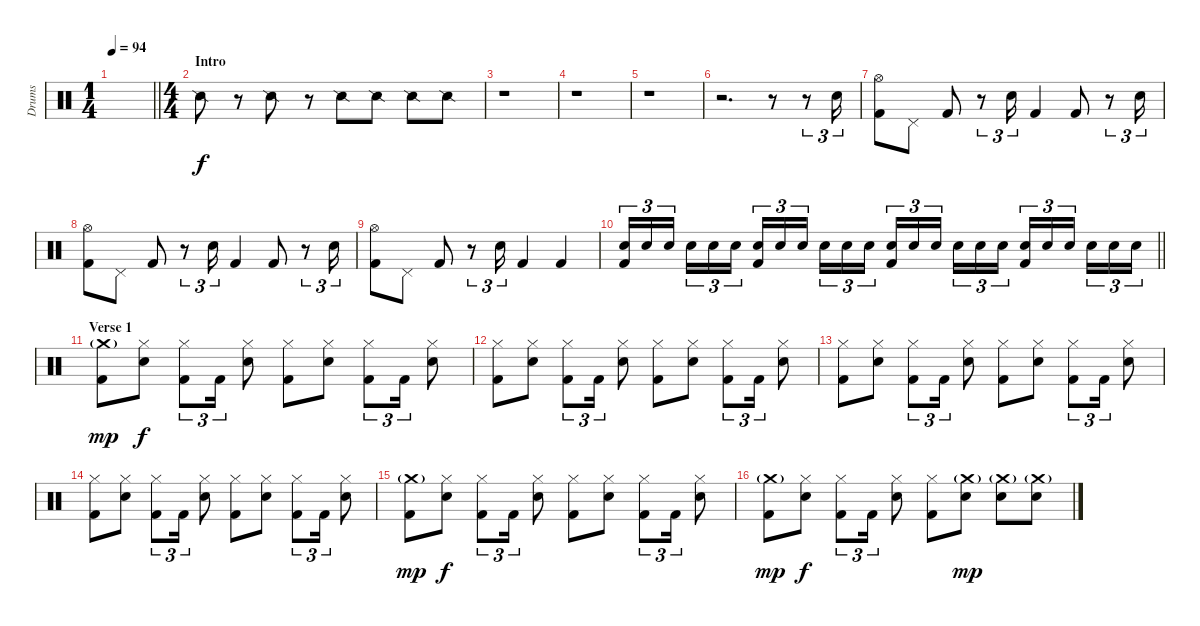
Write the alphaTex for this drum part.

\track ("Drums" "Drums") {instrument percussion}
\staff {score}
\articulation defaults
\ts (1 4)
\tempo 94
\clef neutral
\barLineRight lightlight
\ks c
|
\ts (4 4)
\section ("" "Intro")
"Snare (side stick) 2".8 r.8 "Snare (side stick) 2".8 r.8 "Snare (side stick) 2".8 "Snare (side stick) 2".8 "Snare (side stick) 2".8 "Snare (side stick) 2".8 |
r.1 |
r.1 |
r.1 |
r.2{d} r.8 r.8{tu (3 2)} "Electric Snare (hit)".16{tu (3 2)} |
("Hi-Hat (open)" "Kick (hit) 2").8 "Pedal Hi-Hat (hit)".8 "Kick (hit) 2".8 r.8{tu (3 2)} "Electric Snare (hit)".16{tu (3 2)} "Kick (hit) 2".4 "Kick (hit) 2".8 r.8{tu (3 2)} "Electric Snare (hit)".16{tu (3 2)} |
("Hi-Hat (open)" "Kick (hit) 2").8 "Pedal Hi-Hat (hit)".8 "Kick (hit) 2".8 r.8{tu (3 2)} "Electric Snare (hit)".16{tu (3 2)} "Kick (hit) 2".4 "Kick (hit) 2".8 r.8{tu (3 2)} "Electric Snare (hit)".16{tu (3 2)} |
("Hi-Hat (open)" "Kick (hit) 2").8 "Pedal Hi-Hat (hit)".8 "Kick (hit) 2".8 r.8{tu (3 2)} "Electric Snare (hit)".16{tu (3 2)} "Kick (hit) 2".4 "Kick (hit) 2".4 |
\barLineRight lightlight
("Electric Snare (hit)" "Kick (hit) 2").16{tu (3 2)} "Electric Snare (hit)".16{tu (3 2)} "Electric Snare (hit)".16{tu (3 2) beam splitsecondary} "Electric Snare (hit)".16{tu (3 2)} "Electric Snare (hit)".16{tu (3 2)} "Electric Snare (hit)".16{tu (3 2)} ("Electric Snare (hit)" "Kick (hit) 2").16{tu (3 2)} "Electric Snare (hit)".16{tu (3 2)} "Electric Snare (hit)".16{tu (3 2) beam splitsecondary} "Electric Snare (hit)".16{tu (3 2)} "Electric Snare (hit)".16{tu (3 2)} "Electric Snare (hit)".16{tu (3 2)} ("Electric Snare (hit)" "Kick (hit) 2").16{tu (3 2)} "Electric Snare (hit)".16{tu (3 2)} "Electric Snare (hit)".16{tu (3 2) beam splitsecondary} "Electric Snare (hit)".16{tu (3 2)} "Electric Snare (hit)".16{tu (3 2)} "Electric Snare (hit)".16{tu (3 2)} ("Electric Snare (hit)" "Kick (hit) 2").16{tu (3 2)} "Electric Snare (hit)".16{tu (3 2)} "Electric Snare (hit)".16{tu (3 2) beam splitsecondary} "Electric Snare (hit)".16{tu (3 2)} "Electric Snare (hit)".16{tu (3 2)} "Electric Snare (hit)".16{tu (3 2)} |
\section ("" "Verse 1")
("Crash medium (hit)"{g} "Kick (hit) 2").8{dy mp} ("Hi-Hat (closed)" "Electric Snare (hit)").8{dy f} ("Hi-Hat (closed)" "Kick (hit) 2").8{tu (3 2)} "Kick (hit) 2".16{tu (3 2)} ("Hi-Hat (closed)" "Electric Snare (hit)").8 ("Hi-Hat (closed)" "Kick (hit) 2").8 ("Hi-Hat (closed)" "Electric Snare (hit)").8 ("Hi-Hat (closed)" "Kick (hit) 2").8{tu (3 2)} "Kick (hit) 2".16{tu (3 2)} ("Hi-Hat (closed)" "Electric Snare (hit)").8 |
("Hi-Hat (closed)" "Kick (hit) 2").8 ("Hi-Hat (closed)" "Electric Snare (hit)").8 ("Hi-Hat (closed)" "Kick (hit) 2").8{tu (3 2)} "Kick (hit) 2".16{tu (3 2)} ("Hi-Hat (closed)" "Electric Snare (hit)").8 ("Hi-Hat (closed)" "Kick (hit) 2").8 ("Hi-Hat (closed)" "Electric Snare (hit)").8 ("Hi-Hat (closed)" "Kick (hit) 2").8{tu (3 2)} "Kick (hit) 2".16{tu (3 2)} ("Hi-Hat (closed)" "Electric Snare (hit)").8 |
("Hi-Hat (closed)" "Kick (hit) 2").8 ("Hi-Hat (closed)" "Electric Snare (hit)").8 ("Hi-Hat (closed)" "Kick (hit) 2").8{tu (3 2)} "Kick (hit) 2".16{tu (3 2)} ("Hi-Hat (closed)" "Electric Snare (hit)").8 ("Hi-Hat (closed)" "Kick (hit) 2").8 ("Hi-Hat (closed)" "Electric Snare (hit)").8 ("Hi-Hat (closed)" "Kick (hit) 2").8{tu (3 2)} "Kick (hit) 2".16{tu (3 2)} ("Hi-Hat (closed)" "Electric Snare (hit)").8 |
("Hi-Hat (closed)" "Kick (hit) 2").8 ("Hi-Hat (closed)" "Electric Snare (hit)").8 ("Hi-Hat (closed)" "Kick (hit) 2").8{tu (3 2)} "Kick (hit) 2".16{tu (3 2)} ("Hi-Hat (closed)" "Electric Snare (hit)").8 ("Hi-Hat (closed)" "Kick (hit) 2").8 ("Hi-Hat (closed)" "Electric Snare (hit)").8 ("Hi-Hat (closed)" "Kick (hit) 2").8{tu (3 2)} "Kick (hit) 2".16{tu (3 2)} ("Hi-Hat (closed)" "Electric Snare (hit)").8 |
("Crash medium (hit)"{g} "Kick (hit) 2").8{dy mp} ("Hi-Hat (closed)" "Electric Snare (hit)").8{dy f} ("Hi-Hat (closed)" "Kick (hit) 2").8{tu (3 2)} "Kick (hit) 2".16{tu (3 2)} ("Hi-Hat (closed)" "Electric Snare (hit)").8 ("Hi-Hat (closed)" "Kick (hit) 2").8 ("Hi-Hat (closed)" "Electric Snare (hit)").8 ("Hi-Hat (closed)" "Kick (hit) 2").8{tu (3 2)} "Kick (hit) 2".16{tu (3 2)} ("Hi-Hat (closed)" "Electric Snare (hit)").8 |
("Crash medium (hit)"{g} "Kick (hit) 2").8{dy mp} ("Hi-Hat (closed)" "Electric Snare (hit)").8{dy f} ("Hi-Hat (closed)" "Kick (hit) 2").8{tu (3 2)} "Kick (hit) 2".16{tu (3 2)} ("Hi-Hat (closed)" "Electric Snare (hit)").8 ("Hi-Hat (closed)" "Kick (hit) 2").8 ("Crash medium (hit)"{g} "Electric Snare (hit)").8{dy mp} ("Crash medium (hit)"{g} "Electric Snare (hit)").8 ("Crash medium (hit)"{g} "Electric Snare (hit)").8
